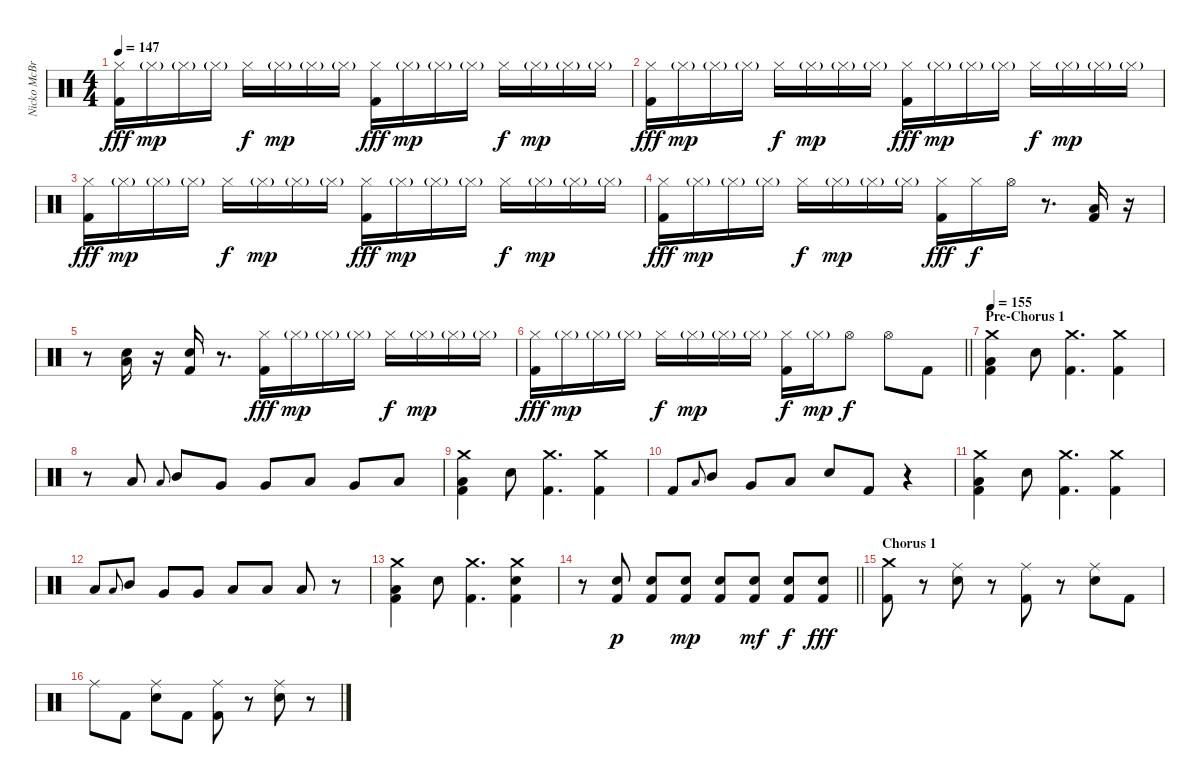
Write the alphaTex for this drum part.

\track ("Nicko McBrain" "Nicko McBr") {instrument percussion}
\staff {score}
\articulation defaults
\ts (4 4)
\tempo 147
\clef neutral
\ks c
("Hi-Hat (closed)" "Kick (hit) 2").16{dy fff} "Hi-Hat (closed)"{g}.16{dy mp} "Hi-Hat (closed)"{g}.16 "Hi-Hat (closed)"{g}.16 "Hi-Hat (closed)".16{dy f} "Hi-Hat (closed)"{g}.16{dy mp} "Hi-Hat (closed)"{g}.16 "Hi-Hat (closed)"{g}.16 ("Hi-Hat (closed)" "Kick (hit) 2").16{dy fff} "Hi-Hat (closed)"{g}.16{dy mp} "Hi-Hat (closed)"{g}.16 "Hi-Hat (closed)"{g}.16 "Hi-Hat (closed)".16{dy f} "Hi-Hat (closed)"{g}.16{dy mp} "Hi-Hat (closed)"{g}.16 "Hi-Hat (closed)"{g}.16 |
("Hi-Hat (closed)" "Kick (hit) 2").16{dy fff} "Hi-Hat (closed)"{g}.16{dy mp} "Hi-Hat (closed)"{g}.16 "Hi-Hat (closed)"{g}.16 "Hi-Hat (closed)".16{dy f} "Hi-Hat (closed)"{g}.16{dy mp} "Hi-Hat (closed)"{g}.16 "Hi-Hat (closed)"{g}.16 ("Hi-Hat (closed)" "Kick (hit) 2").16{dy fff} "Hi-Hat (closed)"{g}.16{dy mp} "Hi-Hat (closed)"{g}.16 "Hi-Hat (closed)"{g}.16 "Hi-Hat (closed)".16{dy f} "Hi-Hat (closed)"{g}.16{dy mp} "Hi-Hat (closed)"{g}.16 "Hi-Hat (closed)"{g}.16 |
("Hi-Hat (closed)" "Kick (hit) 2").16{dy fff} "Hi-Hat (closed)"{g}.16{dy mp} "Hi-Hat (closed)"{g}.16 "Hi-Hat (closed)"{g}.16 "Hi-Hat (closed)".16{dy f} "Hi-Hat (closed)"{g}.16{dy mp} "Hi-Hat (closed)"{g}.16 "Hi-Hat (closed)"{g}.16 ("Hi-Hat (closed)" "Kick (hit) 2").16{dy fff} "Hi-Hat (closed)"{g}.16{dy mp} "Hi-Hat (closed)"{g}.16 "Hi-Hat (closed)"{g}.16 "Hi-Hat (closed)".16{dy f} "Hi-Hat (closed)"{g}.16{dy mp} "Hi-Hat (closed)"{g}.16 "Hi-Hat (closed)"{g}.16 |
("Hi-Hat (closed)" "Kick (hit) 2").16{dy fff} "Hi-Hat (closed)"{g}.16{dy mp} "Hi-Hat (closed)"{g}.16 "Hi-Hat (closed)"{g}.16 "Hi-Hat (closed)".16{dy f} "Hi-Hat (closed)"{g}.16{dy mp} "Hi-Hat (closed)"{g}.16 "Hi-Hat (closed)"{g}.16 ("Hi-Hat (closed)" "Kick (hit) 2").16{dy fff} "Hi-Hat (closed)".16{dy f} "Hi-Hat (open)".16 r.8{d} ("Low Floor Tom (hit)" "Kick (hit) 2").16 r.16 |
r.8 ("Low Floor Tom (hit)" "Snare (hit) 2").16 r.16 ("Snare (hit) 2" "Kick (hit) 2").16 r.8{d} ("Hi-Hat (closed)" "Kick (hit) 2").16{dy fff} "Hi-Hat (closed)"{g}.16{dy mp} "Hi-Hat (closed)"{g}.16 "Hi-Hat (closed)"{g}.16 "Hi-Hat (closed)".16{dy f} "Hi-Hat (closed)"{g}.16{dy mp} "Hi-Hat (closed)"{g}.16 "Hi-Hat (closed)"{g}.16 |
\barLineRight lightlight
("Hi-Hat (closed)" "Kick (hit) 2").16{dy fff} "Hi-Hat (closed)"{g}.16{dy mp} "Hi-Hat (closed)"{g}.16 "Hi-Hat (closed)"{g}.16 "Hi-Hat (closed)".16{dy f} "Hi-Hat (closed)"{g}.16{dy mp} "Hi-Hat (closed)"{g}.16 "Hi-Hat (closed)"{g}.16 ("Hi-Hat (closed)" "Kick (hit) 2").16{dy f} "Hi-Hat (closed)"{g}.16{dy mp} "Hi-Hat (open)".8{dy f} "Hi-Hat (open)".8 "Kick (hit) 2".8 |
\section ("" "Pre-Chorus 1")
\tempo 155
("Crash medium (hit)" "Low Floor Tom (hit)" "Kick (hit) 2").4 "Snare (hit) 2".8 ("Crash medium (hit)" "Kick (hit) 2").4{d} ("Crash medium (hit)" "Kick (hit) 2").4 |
r.8 "Low Floor Tom (hit)".8 "Low Tom (hit)".8{gr onbeat} "Mid Tom (hit)".8 "Very Low Tom (hit)".8 "Very Low Tom (hit)".8 "Low Tom (hit)".8 "Very Low Tom (hit)".8 "Low Floor Tom (hit)".8 |
("Crash medium (hit)" "Low Floor Tom (hit)" "Kick (hit) 2").4 "Snare (hit) 2".8 ("Crash medium (hit)" "Kick (hit) 2").4{d} ("Crash medium (hit)" "Kick (hit) 2").4 |
"Kick (hit) 2".8 "Low Tom (hit)".8{gr onbeat} "Mid Tom (hit)".8 "Very Low Tom (hit)".8 "Low Tom (hit)".8 "Snare (hit) 2".8 "Kick (hit) 2".8 r.4 |
("Crash medium (hit)" "Low Floor Tom (hit)" "Kick (hit) 2").4 "Snare (hit) 2".8 ("Crash medium (hit)" "Kick (hit) 2").4{d} ("Crash medium (hit)" "Kick (hit) 2").4 |
"Low Floor Tom (hit)".8 "Low Tom (hit)".8{gr onbeat} "Mid Tom (hit)".8 "Very Low Tom (hit)".8 "Very Low Tom (hit)".8 "Low Tom (hit)".8 "Low Floor Tom (hit)".8 "Low Floor Tom (hit)".8 r.8 |
("Crash medium (hit)" "Low Floor Tom (hit)" "Kick (hit) 2").4 "Snare (hit) 2".8 ("Crash medium (hit)" "Kick (hit) 2").4{d} ("Crash medium (hit)" "Snare (hit) 2" "Kick (hit) 2").4 |
\barLineRight lightlight
r.8 ("Snare (hit) 2" "Kick (hit) 2").8{dy p} ("Snare (hit) 2" "Kick (hit) 2").8 ("Snare (hit) 2" "Kick (hit) 2").8{dy mp} ("Snare (hit) 2" "Kick (hit) 2").8 ("Snare (hit) 2" "Kick (hit) 2").8{dy mf} ("Snare (hit) 2" "Kick (hit) 2").8{dy f} ("Snare (hit) 2" "Kick (hit) 2").8{dy fff} |
\section ("" "Chorus 1")
("Crash medium (hit)" "Kick (hit) 2").8 r.8 ("Ride (middle)" "Snare (hit) 2").8 r.8 ("Ride (middle)" "Kick (hit) 2").8 r.8 ("Ride (middle)" "Snare (hit) 2").8 "Kick (hit) 2".8 |
"Ride (middle)".8 "Kick (hit) 2".8 ("Ride (middle)" "Snare (hit) 2").8 "Kick (hit) 2".8 ("Ride (middle)" "Kick (hit) 2").8 r.8 ("Ride (middle)" "Snare (hit) 2").8 r.8
